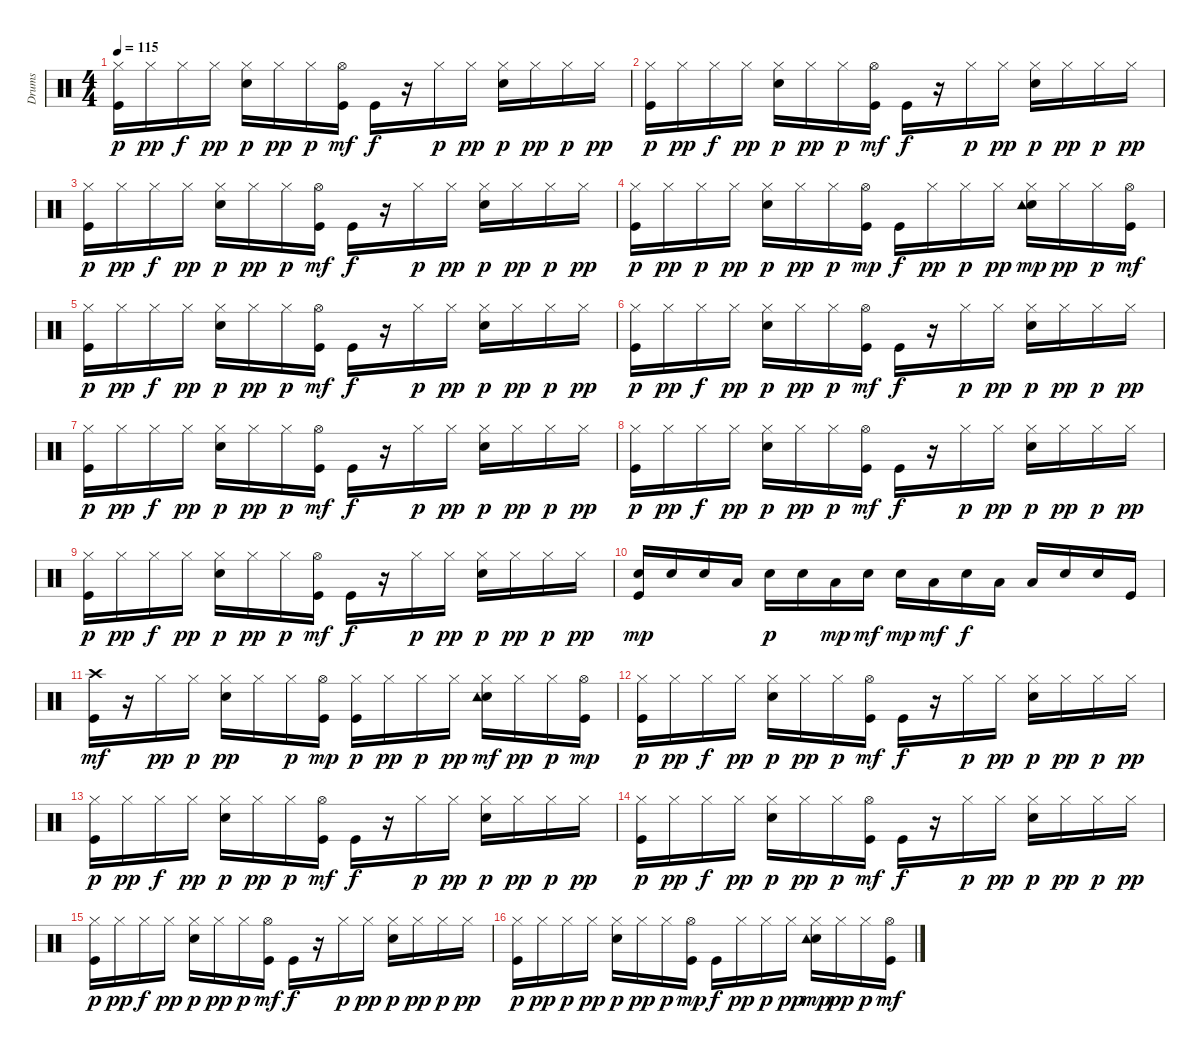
\track ("Drums  " "Drums  ") {instrument percussion}
\staff {score}
\articulation defaults
\ts (4 4)
\tempo 115
\clef neutral
\ks c
("Kick (hit)" "Hi-Hat (closed)").16{dy p} "Hi-Hat (closed)".16{dy pp} "Hi-Hat (closed)".16{dy f} "Hi-Hat (closed)".16{dy pp} ("Snare (hit) 2" "Hi-Hat (closed)").16{dy p} "Hi-Hat (closed)".16{dy pp} "Hi-Hat (closed)".16{dy p} ("Kick (hit)" "Hi-Hat (open)").16{dy mf} "Kick (hit)".16{dy f} r.16 "Hi-Hat (closed)".16{dy p} "Hi-Hat (closed)".16{dy pp} ("Snare (hit) 2" "Hi-Hat (closed)").16{dy p} "Hi-Hat (closed)".16{dy pp} "Hi-Hat (closed)".16{dy p} "Hi-Hat (closed)".16{dy pp} |
("Kick (hit)" "Hi-Hat (closed)").16{dy p} "Hi-Hat (closed)".16{dy pp} "Hi-Hat (closed)".16{dy f} "Hi-Hat (closed)".16{dy pp} ("Snare (hit) 2" "Hi-Hat (closed)").16{dy p} "Hi-Hat (closed)".16{dy pp} "Hi-Hat (closed)".16{dy p} ("Kick (hit)" "Hi-Hat (open)").16{dy mf} "Kick (hit)".16{dy f} r.16 "Hi-Hat (closed)".16{dy p} "Hi-Hat (closed)".16{dy pp} ("Snare (hit) 2" "Hi-Hat (closed)").16{dy p} "Hi-Hat (closed)".16{dy pp} "Hi-Hat (closed)".16{dy p} "Hi-Hat (closed)".16{dy pp} |
("Kick (hit)" "Hi-Hat (closed)").16{dy p} "Hi-Hat (closed)".16{dy pp} "Hi-Hat (closed)".16{dy f} "Hi-Hat (closed)".16{dy pp} ("Snare (hit) 2" "Hi-Hat (closed)").16{dy p} "Hi-Hat (closed)".16{dy pp} "Hi-Hat (closed)".16{dy p} ("Kick (hit)" "Hi-Hat (open)").16{dy mf} "Kick (hit)".16{dy f} r.16 "Hi-Hat (closed)".16{dy p} "Hi-Hat (closed)".16{dy pp} ("Snare (hit) 2" "Hi-Hat (closed)").16{dy p} "Hi-Hat (closed)".16{dy pp} "Hi-Hat (closed)".16{dy p} "Hi-Hat (closed)".16{dy pp} |
("Kick (hit)" "Hi-Hat (closed)").16{dy p} "Hi-Hat (closed)".16{dy pp} "Hi-Hat (closed)".16{dy p} "Hi-Hat (closed)".16{dy pp} ("Snare (hit) 2" "Hi-Hat (closed)").16{dy p} "Hi-Hat (closed)".16{dy pp} "Hi-Hat (closed)".16{dy p} ("Kick (hit)" "Hi-Hat (open)").16{dy mp} "Kick (hit)".16{dy f} "Hi-Hat (closed)".16{dy pp} "Hi-Hat (closed)".16{dy p} "Hi-Hat (closed)".16{dy pp} ("Snare (hit) 2" "Hi-Hat (closed)" "Tambourine (hit)").16{dy mp} "Hi-Hat (closed)".16{dy pp} "Hi-Hat (closed)".16{dy p} ("Kick (hit)" "Hi-Hat (open)").16{dy mf} |
("Kick (hit)" "Hi-Hat (closed)").16{dy p} "Hi-Hat (closed)".16{dy pp} "Hi-Hat (closed)".16{dy f} "Hi-Hat (closed)".16{dy pp} ("Snare (hit) 2" "Hi-Hat (closed)").16{dy p} "Hi-Hat (closed)".16{dy pp} "Hi-Hat (closed)".16{dy p} ("Kick (hit)" "Hi-Hat (open)").16{dy mf} "Kick (hit)".16{dy f} r.16 "Hi-Hat (closed)".16{dy p} "Hi-Hat (closed)".16{dy pp} ("Snare (hit) 2" "Hi-Hat (closed)").16{dy p} "Hi-Hat (closed)".16{dy pp} "Hi-Hat (closed)".16{dy p} "Hi-Hat (closed)".16{dy pp} |
("Kick (hit)" "Hi-Hat (closed)").16{dy p} "Hi-Hat (closed)".16{dy pp} "Hi-Hat (closed)".16{dy f} "Hi-Hat (closed)".16{dy pp} ("Snare (hit) 2" "Hi-Hat (closed)").16{dy p} "Hi-Hat (closed)".16{dy pp} "Hi-Hat (closed)".16{dy p} ("Kick (hit)" "Hi-Hat (open)").16{dy mf} "Kick (hit)".16{dy f} r.16 "Hi-Hat (closed)".16{dy p} "Hi-Hat (closed)".16{dy pp} ("Snare (hit) 2" "Hi-Hat (closed)").16{dy p} "Hi-Hat (closed)".16{dy pp} "Hi-Hat (closed)".16{dy p} "Hi-Hat (closed)".16{dy pp} |
("Kick (hit)" "Hi-Hat (closed)").16{dy p} "Hi-Hat (closed)".16{dy pp} "Hi-Hat (closed)".16{dy f} "Hi-Hat (closed)".16{dy pp} ("Snare (hit) 2" "Hi-Hat (closed)").16{dy p} "Hi-Hat (closed)".16{dy pp} "Hi-Hat (closed)".16{dy p} ("Kick (hit)" "Hi-Hat (open)").16{dy mf} "Kick (hit)".16{dy f} r.16 "Hi-Hat (closed)".16{dy p} "Hi-Hat (closed)".16{dy pp} ("Snare (hit) 2" "Hi-Hat (closed)").16{dy p} "Hi-Hat (closed)".16{dy pp} "Hi-Hat (closed)".16{dy p} "Hi-Hat (closed)".16{dy pp} |
("Kick (hit)" "Hi-Hat (closed)").16{dy p} "Hi-Hat (closed)".16{dy pp} "Hi-Hat (closed)".16{dy f} "Hi-Hat (closed)".16{dy pp} ("Snare (hit) 2" "Hi-Hat (closed)").16{dy p} "Hi-Hat (closed)".16{dy pp} "Hi-Hat (closed)".16{dy p} ("Kick (hit)" "Hi-Hat (open)").16{dy mf} "Kick (hit)".16{dy f} r.16 "Hi-Hat (closed)".16{dy p} "Hi-Hat (closed)".16{dy pp} ("Snare (hit) 2" "Hi-Hat (closed)").16{dy p} "Hi-Hat (closed)".16{dy pp} "Hi-Hat (closed)".16{dy p} "Hi-Hat (closed)".16{dy pp} |
("Kick (hit)" "Hi-Hat (closed)").16{dy p} "Hi-Hat (closed)".16{dy pp} "Hi-Hat (closed)".16{dy f} "Hi-Hat (closed)".16{dy pp} ("Snare (hit) 2" "Hi-Hat (closed)").16{dy p} "Hi-Hat (closed)".16{dy pp} "Hi-Hat (closed)".16{dy p} ("Kick (hit)" "Hi-Hat (open)").16{dy mf} "Kick (hit)".16{dy f} r.16 "Hi-Hat (closed)".16{dy p} "Hi-Hat (closed)".16{dy pp} ("Snare (hit) 2" "Hi-Hat (closed)").16{dy p} "Hi-Hat (closed)".16{dy pp} "Hi-Hat (closed)".16{dy p} "Hi-Hat (closed)".16{dy pp} |
("Kick (hit)" "Snare (hit) 2").16{dy mp} "Snare (hit) 2".16 "Snare (hit) 2".16 "Low Tom (hit)".16 "Snare (hit) 2".16{dy p} "Snare (hit) 2".16 "Low Floor Tom (hit)".16{dy mp} "Snare (hit) 2".16{dy mf} "Snare (hit) 2".16{dy mp} "Low Floor Tom (hit)".16{dy mf} "Snare (hit) 2".16{dy f} "Low Floor Tom (hit)".16 "Low Floor Tom (hit)".16 "Snare (hit) 2".16 "Snare (hit) 2".16 "Kick (hit)".16 |
("Kick (hit)" "Crash high (hit)").16{dy mf} r.16 "Hi-Hat (closed)".16{dy pp} "Hi-Hat (closed)".16{dy p} ("Snare (hit) 2" "Hi-Hat (closed)").16{dy pp} "Hi-Hat (closed)".16 "Hi-Hat (closed)".16{dy p} ("Kick (hit)" "Hi-Hat (open)").16{dy mp} ("Kick (hit)" "Hi-Hat (closed)").16{dy p} "Hi-Hat (closed)".16{dy pp} "Hi-Hat (closed)".16{dy p} "Hi-Hat (closed)".16{dy pp} ("Snare (hit) 2" "Hi-Hat (closed)" "Tambourine (hit)").16{dy mf} "Hi-Hat (closed)".16{dy pp} "Hi-Hat (closed)".16{dy p} ("Kick (hit)" "Hi-Hat (open)").16{dy mp} |
("Kick (hit)" "Hi-Hat (closed)").16{dy p} "Hi-Hat (closed)".16{dy pp} "Hi-Hat (closed)".16{dy f} "Hi-Hat (closed)".16{dy pp} ("Snare (hit) 2" "Hi-Hat (closed)").16{dy p} "Hi-Hat (closed)".16{dy pp} "Hi-Hat (closed)".16{dy p} ("Kick (hit)" "Hi-Hat (open)").16{dy mf} "Kick (hit)".16{dy f} r.16 "Hi-Hat (closed)".16{dy p} "Hi-Hat (closed)".16{dy pp} ("Snare (hit) 2" "Hi-Hat (closed)").16{dy p} "Hi-Hat (closed)".16{dy pp} "Hi-Hat (closed)".16{dy p} "Hi-Hat (closed)".16{dy pp} |
("Kick (hit)" "Hi-Hat (closed)").16{dy p} "Hi-Hat (closed)".16{dy pp} "Hi-Hat (closed)".16{dy f} "Hi-Hat (closed)".16{dy pp} ("Snare (hit) 2" "Hi-Hat (closed)").16{dy p} "Hi-Hat (closed)".16{dy pp} "Hi-Hat (closed)".16{dy p} ("Kick (hit)" "Hi-Hat (open)").16{dy mf} "Kick (hit)".16{dy f} r.16 "Hi-Hat (closed)".16{dy p} "Hi-Hat (closed)".16{dy pp} ("Snare (hit) 2" "Hi-Hat (closed)").16{dy p} "Hi-Hat (closed)".16{dy pp} "Hi-Hat (closed)".16{dy p} "Hi-Hat (closed)".16{dy pp} |
("Kick (hit)" "Hi-Hat (closed)").16{dy p} "Hi-Hat (closed)".16{dy pp} "Hi-Hat (closed)".16{dy f} "Hi-Hat (closed)".16{dy pp} ("Snare (hit) 2" "Hi-Hat (closed)").16{dy p} "Hi-Hat (closed)".16{dy pp} "Hi-Hat (closed)".16{dy p} ("Kick (hit)" "Hi-Hat (open)").16{dy mf} "Kick (hit)".16{dy f} r.16 "Hi-Hat (closed)".16{dy p} "Hi-Hat (closed)".16{dy pp} ("Snare (hit) 2" "Hi-Hat (closed)").16{dy p} "Hi-Hat (closed)".16{dy pp} "Hi-Hat (closed)".16{dy p} "Hi-Hat (closed)".16{dy pp} |
("Kick (hit)" "Hi-Hat (closed)").16{dy p} "Hi-Hat (closed)".16{dy pp} "Hi-Hat (closed)".16{dy f} "Hi-Hat (closed)".16{dy pp} ("Snare (hit) 2" "Hi-Hat (closed)").16{dy p} "Hi-Hat (closed)".16{dy pp} "Hi-Hat (closed)".16{dy p} ("Kick (hit)" "Hi-Hat (open)").16{dy mf} "Kick (hit)".16{dy f} r.16 "Hi-Hat (closed)".16{dy p} "Hi-Hat (closed)".16{dy pp} ("Snare (hit) 2" "Hi-Hat (closed)").16{dy p} "Hi-Hat (closed)".16{dy pp} "Hi-Hat (closed)".16{dy p} "Hi-Hat (closed)".16{dy pp} |
("Kick (hit)" "Hi-Hat (closed)").16{dy p} "Hi-Hat (closed)".16{dy pp} "Hi-Hat (closed)".16{dy p} "Hi-Hat (closed)".16{dy pp} ("Snare (hit) 2" "Hi-Hat (closed)").16{dy p} "Hi-Hat (closed)".16{dy pp} "Hi-Hat (closed)".16{dy p} ("Kick (hit)" "Hi-Hat (open)").16{dy mp} "Kick (hit)".16{dy f} "Hi-Hat (closed)".16{dy pp} "Hi-Hat (closed)".16{dy p} "Hi-Hat (closed)".16{dy pp} ("Snare (hit) 2" "Hi-Hat (closed)" "Tambourine (hit)").16{dy mp} "Hi-Hat (closed)".16{dy pp} "Hi-Hat (closed)".16{dy p} ("Kick (hit)" "Hi-Hat (open)").16{dy mf}
